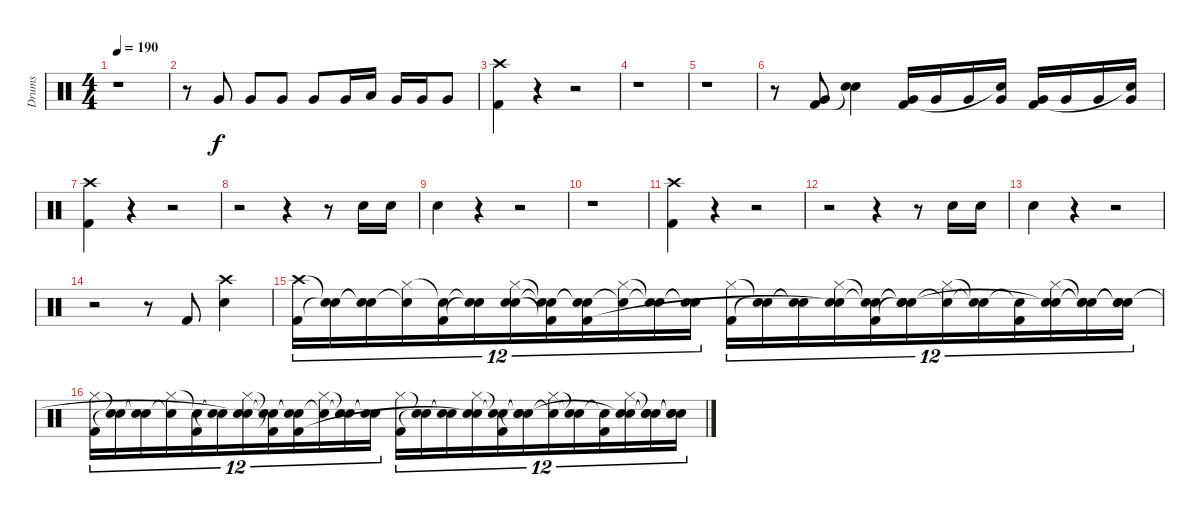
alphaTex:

\track ("Drums" "Drums") {instrument percussion}
\staff {score}
\articulation defaults
\ts (4 4)
\tempo 190
\clef neutral
\ks c
r.1{dy f} |
r.8 "Very Low Tom (hit)".8 "Very Low Tom (hit)".8 "Very Low Tom (hit)".8 "Very Low Tom (hit)".8 "Very Low Tom (hit)".16 "Low Floor Tom (hit)".16 "Very Low Tom (hit)".16 "Very Low Tom (hit)".16 "Very Low Tom (hit)".8 |
("Crash high (hit)" "Kick (hit) 2").4 r.4 r.2 |
r.1 |
r.1 |
r.8 ("Very Low Tom (hit)" "Kick (hit) 2").8 ("Snare (hit) 2" "Snare (hit)"{t}).4 ("Very Low Tom (hit)" "Kick (hit) 2").16 "Very Low Tom (hit)".16 "Very Low Tom (hit)".16 ("Very Low Tom (hit)" "Snare (hit)"{t}).16 ("Very Low Tom (hit)" "Kick (hit) 2").16 "Very Low Tom (hit)".16 "Very Low Tom (hit)".16 ("Very Low Tom (hit)" "Snare (hit)"{t}).16 |
("Crash high (hit)" "Kick (hit) 2").4 r.4 r.2 |
r.2 r.4 r.8 "Snare (hit) 2".16 "Snare (hit) 2".16 |
"Snare (hit) 2".4 r.4 r.2 |
r.1 |
("Crash high (hit)" "Kick (hit) 2").4 r.4 r.2 |
r.2 r.4 r.8 "Snare (hit) 2".16 "Snare (hit) 2".16 |
"Snare (hit) 2".4 r.4 r.2 |
r.2 r.8 "Kick (hit) 2".8 ("Crash high (hit)" "Snare (hit) 2").4 |
("Crash high (hit)" "Kick (hit) 2").16{tu (12 8)} ("Snare (hit)"{t} "Snare (hit)"{t}).16{tu (12 8)} ("Snare (hit)"{t} "Snare (hit)"{t}).16{tu (12 8)} ("Hi-Hat (closed)" "Snare (hit)"{t}).16{tu (12 8)} ("Snare (hit)"{t} "Kick (hit) 2").16{tu (12 8)} ("Snare (hit)"{t} "Snare (hit)"{t}).16{tu (12 8)} ("Hi-Hat (closed)" "Snare (hit) 2" "Snare (hit)").16{tu (12 8)} ("Snare (hit)"{t} "Snare (hit)"{t} "Kick (hit) 2"{t}).16{tu (12 8)} ("Snare (hit)"{t} "Snare (hit)"{t} "Kick (hit) 2").16{tu (12 8)} ("Hi-Hat (closed)" "Snare (hit)"{t}).16{tu (12 8)} ("Snare (hit)"{t} "Snare (hit)"{t}).16{tu (12 8)} ("Snare (hit)"{t} "Snare (hit)"{t}).16{tu (12 8)} ("Hi-Hat (closed)" "Kick (hit) 2").16{tu (12 8)} ("Snare (hit)"{t} "Snare (hit)"{t}).16{tu (12 8)} ("Snare (hit)"{t} "Snare (hit)"{t}).16{tu (12 8)} ("Hi-Hat (closed)" "Snare (hit) 2" "Snare (hit)"{t}).16{tu (12 8)} ("Snare (hit)"{t} "Snare (hit)"{t} "Kick (hit) 2").16{tu (12 8)} ("Snare (hit)"{t} "Snare (hit)"{t} "Snare (hit)"{t}).16{tu (12 8)} ("Hi-Hat (closed)" "Snare (hit)"{t}).16{tu (12 8)} ("Snare (hit)"{t} "Snare (hit)"{t}).16{tu (12 8)} ("Snare (hit)"{t} "Kick (hit) 2").16{tu (12 8)} ("Hi-Hat (closed)" "Snare (hit) 2" "Snare (hit)"{t}).16{tu (12 8)} ("Snare (hit)"{t} "Snare (hit)"{t} "Snare (hit)"{t}).16{tu (12 8)} ("Snare (hit)"{t} "Snare (hit)"{t} "Snare (hit)"{t}).16{tu (12 8)} |
("Hi-Hat (closed)" "Kick (hit) 2").16{tu (12 8)} ("Snare (hit)"{t} "Snare (hit)"{t}).16{tu (12 8)} ("Snare (hit)"{t} "Snare (hit)"{t}).16{tu (12 8)} ("Hi-Hat (closed)" "Snare (hit)"{t}).16{tu (12 8)} ("Snare (hit)"{t} "Kick (hit) 2").16{tu (12 8)} ("Snare (hit)"{t} "Snare (hit)"{t}).16{tu (12 8)} ("Hi-Hat (closed)" "Snare (hit) 2" "Snare (hit)"{t}).16{tu (12 8)} ("Snare (hit)"{t} "Snare (hit)"{t} "Kick (hit) 2"{t}).16{tu (12 8)} ("Snare (hit)"{t} "Snare (hit)"{t} "Kick (hit) 2").16{tu (12 8)} ("Hi-Hat (closed)" "Snare (hit)"{t}).16{tu (12 8)} ("Snare (hit)"{t} "Snare (hit)"{t}).16{tu (12 8)} ("Snare (hit)"{t} "Snare (hit)"{t}).16{tu (12 8)} ("Hi-Hat (closed)" "Kick (hit) 2").16{tu (12 8)} ("Snare (hit)"{t} "Snare (hit)"{t}).16{tu (12 8)} ("Snare (hit)"{t} "Snare (hit)"{t}).16{tu (12 8)} ("Hi-Hat (closed)" "Snare (hit) 2" "Snare (hit)"{t}).16{tu (12 8)} ("Snare (hit)"{t} "Snare (hit)"{t} "Kick (hit) 2").16{tu (12 8)} ("Snare (hit)"{t} "Snare (hit)"{t} "Snare (hit)"{t}).16{tu (12 8)} ("Hi-Hat (closed)" "Snare (hit)"{t}).16{tu (12 8)} ("Snare (hit)"{t} "Snare (hit)"{t}).16{tu (12 8)} ("Snare (hit)"{t} "Kick (hit) 2").16{tu (12 8)} ("Hi-Hat (closed)" "Snare (hit) 2" "Snare (hit)"{t}).16{tu (12 8)} ("Snare (hit)"{t} "Snare (hit)"{t} "Snare (hit)"{t}).16{tu (12 8)} ("Snare (hit)"{t} "Snare (hit)"{t} "Snare (hit)"{t}).16{tu (12 8)}
